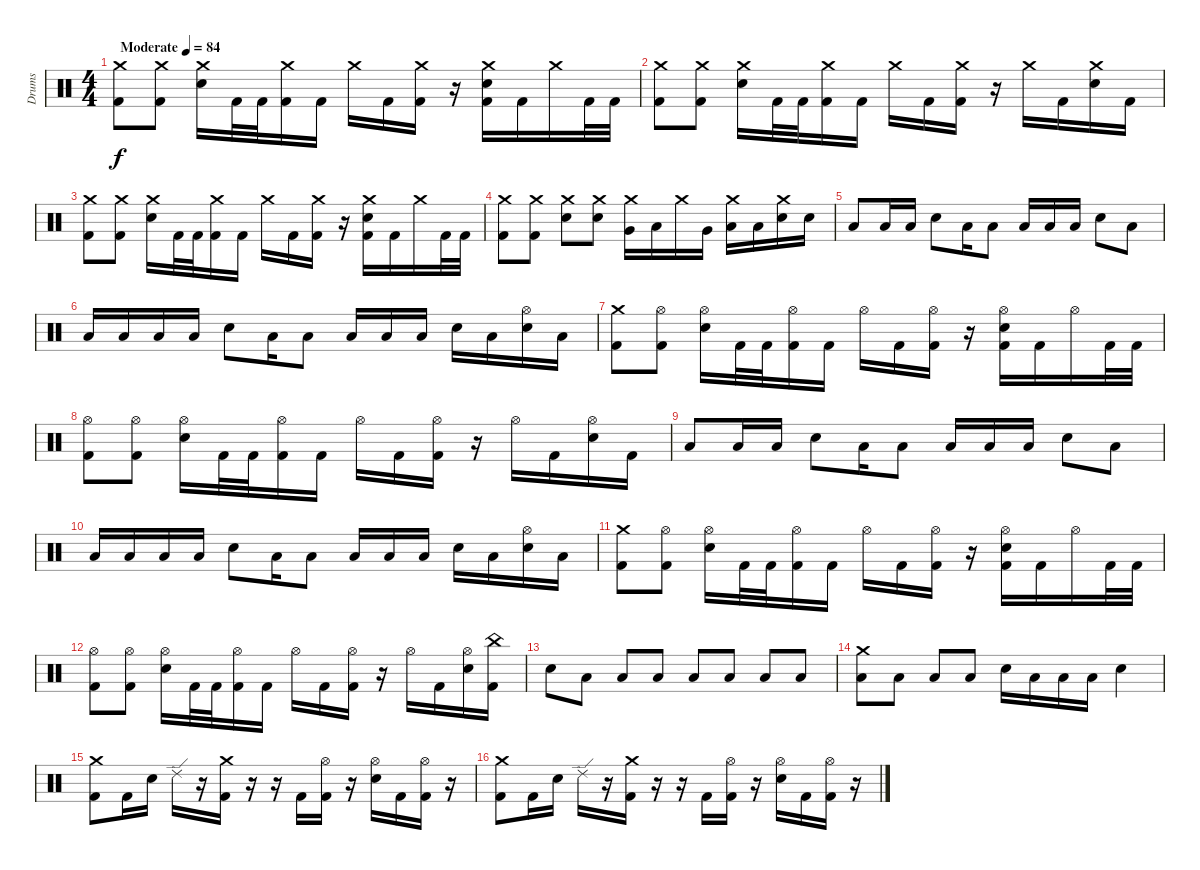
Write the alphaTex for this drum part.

\track ("Drums" "Drums") {instrument percussion}
\staff {score}
\articulation defaults
\ts (4 4)
\tempo (84 "Moderate")
\clef neutral
\ks c
("Crash medium (hit)" "Kick (hit) 2").8{dy f} ("Crash medium (hit)" "Kick (hit) 2").8 ("Crash medium (hit)" "Electric Snare (hit)").16 "Kick (hit) 2".32 "Kick (hit) 2".32 ("Crash medium (hit)" "Kick (hit) 2").16 "Kick (hit) 2".16 "Crash medium (hit)".16 "Kick (hit) 2".16 ("Crash medium (hit)" "Kick (hit) 2").16 r.16 ("Crash medium (hit)" "Electric Snare (hit)" "Kick (hit) 2").16 "Kick (hit) 2".16 "Crash medium (hit)".16 "Kick (hit) 2".32 "Kick (hit) 2".32 |
("Crash medium (hit)" "Kick (hit) 2").8 ("Crash medium (hit)" "Kick (hit) 2").8 ("Crash medium (hit)" "Electric Snare (hit)").16 "Kick (hit) 2".32 "Kick (hit) 2".32 ("Crash medium (hit)" "Kick (hit) 2").16 "Kick (hit) 2".16 "Crash medium (hit)".16 "Kick (hit) 2".16 ("Crash medium (hit)" "Kick (hit) 2").16 r.16 "Crash medium (hit)".16 "Kick (hit) 2".16 ("Crash medium (hit)" "Electric Snare (hit)").16 "Kick (hit) 2".16 |
("Crash medium (hit)" "Kick (hit) 2").8 ("Crash medium (hit)" "Kick (hit) 2").8 ("Crash medium (hit)" "Electric Snare (hit)").16 "Kick (hit) 2".32 "Kick (hit) 2".32 ("Crash medium (hit)" "Kick (hit) 2").16 "Kick (hit) 2".16 "Crash medium (hit)".16 "Kick (hit) 2".16 ("Crash medium (hit)" "Kick (hit) 2").16 r.16 ("Crash medium (hit)" "Electric Snare (hit)" "Kick (hit) 2").16 "Kick (hit) 2".16 "Crash medium (hit)".16 "Kick (hit) 2".32 "Kick (hit) 2".32 |
("Crash medium (hit)" "Kick (hit) 2").8 ("Crash medium (hit)" "Kick (hit) 2").8 ("Crash medium (hit)" "Electric Snare (hit)").8 ("Crash medium (hit)" "Electric Snare (hit)").8 ("Crash medium (hit)" "Very Low Tom (hit)").16 "Low Floor Tom (hit)".16 "Crash medium (hit)".16 "Very Low Tom (hit)".16 ("Crash medium (hit)" "Low Tom (hit)").16 "Low Floor Tom (hit)".16 ("Crash medium (hit)" "Electric Snare (hit)").16 "Electric Snare (hit)".16 |
"Low Floor Tom (hit)".8 "Low Floor Tom (hit)".16 "Low Floor Tom (hit)".16 "Electric Snare (hit)".8 "Low Floor Tom (hit)".16 "Low Floor Tom (hit)".8 "Low Floor Tom (hit)".16 "Low Floor Tom (hit)".16 "Low Floor Tom (hit)".16 "Electric Snare (hit)".8 "Low Floor Tom (hit)".8 |
"Low Floor Tom (hit)".16 "Low Floor Tom (hit)".16 "Low Floor Tom (hit)".16 "Low Floor Tom (hit)".16 "Electric Snare (hit)".8 "Low Floor Tom (hit)".16 "Low Floor Tom (hit)".8 "Low Floor Tom (hit)".16 "Low Floor Tom (hit)".16 "Low Floor Tom (hit)".16 "Electric Snare (hit)".16 "Low Floor Tom (hit)".16 ("Hi-Hat (open)" "Electric Snare (hit)").16 "Low Floor Tom (hit)".16 |
("Crash medium (hit)" "Kick (hit) 2").8 ("Hi-Hat (open)" "Kick (hit) 2").8 ("Hi-Hat (open)" "Electric Snare (hit)").16 "Kick (hit) 2".32 "Kick (hit) 2".32 ("Hi-Hat (open)" "Kick (hit) 2").16 "Kick (hit) 2".16 "Hi-Hat (open)".16 "Kick (hit) 2".16 ("Hi-Hat (open)" "Kick (hit) 2").16 r.16 ("Hi-Hat (open)" "Electric Snare (hit)" "Kick (hit) 2").16 "Kick (hit) 2".16 "Hi-Hat (open)".16 "Kick (hit) 2".32 "Kick (hit) 2".32 |
("Hi-Hat (open)" "Kick (hit) 2").8 ("Hi-Hat (open)" "Kick (hit) 2").8 ("Hi-Hat (open)" "Electric Snare (hit)").16 "Kick (hit) 2".32 "Kick (hit) 2".32 ("Hi-Hat (open)" "Kick (hit) 2").16 "Kick (hit) 2".16 "Hi-Hat (open)".16 "Kick (hit) 2".16 ("Hi-Hat (open)" "Kick (hit) 2").16 r.16 "Hi-Hat (open)".16 "Kick (hit) 2".16 ("Hi-Hat (open)" "Electric Snare (hit)").16 "Kick (hit) 2".16 |
"Low Floor Tom (hit)".8 "Low Floor Tom (hit)".16 "Low Floor Tom (hit)".16 "Electric Snare (hit)".8 "Low Floor Tom (hit)".16 "Low Floor Tom (hit)".8 "Low Floor Tom (hit)".16 "Low Floor Tom (hit)".16 "Low Floor Tom (hit)".16 "Electric Snare (hit)".8 "Low Floor Tom (hit)".8 |
"Low Floor Tom (hit)".16 "Low Floor Tom (hit)".16 "Low Floor Tom (hit)".16 "Low Floor Tom (hit)".16 "Electric Snare (hit)".8 "Low Floor Tom (hit)".16 "Low Floor Tom (hit)".8 "Low Floor Tom (hit)".16 "Low Floor Tom (hit)".16 "Low Floor Tom (hit)".16 "Electric Snare (hit)".16 "Low Floor Tom (hit)".16 ("Hi-Hat (open)" "Electric Snare (hit)").16 "Low Floor Tom (hit)".16 |
("Crash medium (hit)" "Kick (hit) 2").8 ("Hi-Hat (open)" "Kick (hit) 2").8 ("Hi-Hat (open)" "Electric Snare (hit)").16 "Kick (hit) 2".32 "Kick (hit) 2".32 ("Hi-Hat (open)" "Kick (hit) 2").16 "Kick (hit) 2".16 "Hi-Hat (open)".16 "Kick (hit) 2".16 ("Hi-Hat (open)" "Kick (hit) 2").16 r.16 ("Hi-Hat (open)" "Electric Snare (hit)" "Kick (hit) 2").16 "Kick (hit) 2".16 "Hi-Hat (open)".16 "Kick (hit) 2".32 "Kick (hit) 2".32 |
("Hi-Hat (open)" "Kick (hit) 2").8 ("Hi-Hat (open)" "Kick (hit) 2").8 ("Hi-Hat (open)" "Electric Snare (hit)").16 "Kick (hit) 2".32 "Kick (hit) 2".32 ("Hi-Hat (open)" "Kick (hit) 2").16 "Kick (hit) 2".16 "Hi-Hat (open)".16 "Kick (hit) 2".16 ("Hi-Hat (open)" "Kick (hit) 2").16 r.16 "Hi-Hat (open)".16 "Kick (hit) 2".16 ("Hi-Hat (open)" "Electric Snare (hit)").16 ("China (hit)" "Kick (hit) 2").16 |
"Electric Snare (hit)".8 "Low Floor Tom (hit)".8 "Low Floor Tom (hit)".8 "Low Floor Tom (hit)".8 "Low Floor Tom (hit)".8 "Low Floor Tom (hit)".8 "Low Floor Tom (hit)".8 "Low Floor Tom (hit)".8 |
("Crash medium (hit)" "Low Floor Tom (hit)").8 "Low Floor Tom (hit)".8 "Low Floor Tom (hit)".8 "Low Floor Tom (hit)".8 "Electric Snare (hit)".16 "Low Floor Tom (hit)".16 "Low Floor Tom (hit)".16 "Low Floor Tom (hit)".16 "Electric Snare (hit)".4 |
("Crash medium (hit)" "Kick (hit) 2").8 "Kick (hit) 2".16 "Electric Snare (hit)".16 "Ride (edge) 2".16 r.16 ("Crash medium (hit)" "Kick (hit) 2").16 r.16 r.16 "Kick (hit) 2".16 ("Hi-Hat (open)" "Kick (hit) 2").16 r.16 ("Hi-Hat (open)" "Electric Snare (hit)").16 "Kick (hit) 2".16 ("Hi-Hat (open)" "Kick (hit) 2").16 r.16 |
("Crash medium (hit)" "Kick (hit) 2").8 "Kick (hit) 2".16 "Electric Snare (hit)".16 "Ride (edge) 2".16 r.16 ("Crash medium (hit)" "Kick (hit) 2").16 r.16 r.16 "Kick (hit) 2".16 ("Hi-Hat (open)" "Kick (hit) 2").16 r.16 ("Hi-Hat (open)" "Electric Snare (hit)").16 "Kick (hit) 2".16 ("Hi-Hat (open)" "Kick (hit) 2").16 r.16
